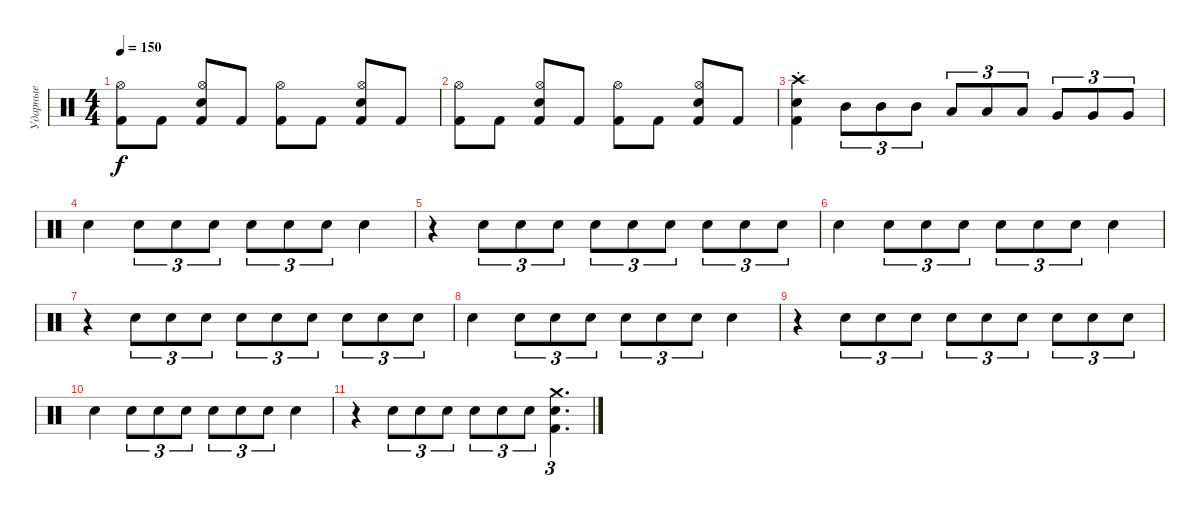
\track ("Ударные" "Ударные") {instrument percussion}
\staff {score}
\articulation defaults
\ts (4 4)
\tempo 150
\clef neutral
\ks c
("Kick (hit) 2" "Hi-Hat (open)").8{dy f} "Kick (hit) 2".8 ("Snare (hit) 2" "Kick (hit) 2" "Hi-Hat (open)").8 "Kick (hit) 2".8 ("Kick (hit) 2" "Hi-Hat (open)").8 "Kick (hit) 2".8 ("Snare (hit) 2" "Kick (hit) 2" "Hi-Hat (open)").8 "Kick (hit) 2".8 |
("Kick (hit) 2" "Hi-Hat (open)").8 "Kick (hit) 2".8 ("Snare (hit) 2" "Kick (hit) 2" "Hi-Hat (open)").8 "Kick (hit) 2".8 ("Kick (hit) 2" "Hi-Hat (open)").8 "Kick (hit) 2".8 ("Snare (hit) 2" "Kick (hit) 2" "Hi-Hat (open)").8 "Kick (hit) 2".8 |
("Kick (hit) 2"{st} "Snare (hit) 2"{st} "Crash high (hit)"{st}).4 "Mid Tom (hit)".8{tu (3 2)} "Mid Tom (hit)".8{tu (3 2)} "Mid Tom (hit)".8{tu (3 2)} "Low Tom (hit)".8{tu (3 2)} "Low Tom (hit)".8{tu (3 2)} "Low Tom (hit)".8{tu (3 2)} "Very Low Tom (hit)".8{tu (3 2)} "Very Low Tom (hit)".8{tu (3 2)} "Very Low Tom (hit)".8{tu (3 2) volume 5} |
"Snare (hit) 2".4{volume 13} "Snare (hit) 2".8{tu (3 2)} "Snare (hit) 2".8{tu (3 2)} "Snare (hit) 2".8{tu (3 2)} "Snare (hit) 2".8{tu (3 2)} "Snare (hit) 2".8{tu (3 2)} "Snare (hit) 2".8{tu (3 2)} "Snare (hit) 2".4 |
r.4 "Snare (hit) 2".8{tu (3 2)} "Snare (hit) 2".8{tu (3 2)} "Snare (hit) 2".8{tu (3 2)} "Snare (hit) 2".8{tu (3 2)} "Snare (hit) 2".8{tu (3 2)} "Snare (hit) 2".8{tu (3 2)} "Snare (hit) 2".8{tu (3 2)} "Snare (hit) 2".8{tu (3 2)} "Snare (hit) 2".8{tu (3 2)} |
"Snare (hit) 2".4 "Snare (hit) 2".8{tu (3 2)} "Snare (hit) 2".8{tu (3 2)} "Snare (hit) 2".8{tu (3 2)} "Snare (hit) 2".8{tu (3 2)} "Snare (hit) 2".8{tu (3 2)} "Snare (hit) 2".8{tu (3 2)} "Snare (hit) 2".4 |
r.4 "Snare (hit) 2".8{tu (3 2)} "Snare (hit) 2".8{tu (3 2)} "Snare (hit) 2".8{tu (3 2)} "Snare (hit) 2".8{tu (3 2)} "Snare (hit) 2".8{tu (3 2)} "Snare (hit) 2".8{tu (3 2)} "Snare (hit) 2".8{tu (3 2)} "Snare (hit) 2".8{tu (3 2)} "Snare (hit) 2".8{tu (3 2)} |
"Snare (hit) 2".4 "Snare (hit) 2".8{tu (3 2)} "Snare (hit) 2".8{tu (3 2)} "Snare (hit) 2".8{tu (3 2)} "Snare (hit) 2".8{tu (3 2)} "Snare (hit) 2".8{tu (3 2)} "Snare (hit) 2".8{tu (3 2)} "Snare (hit) 2".4 |
r.4 "Snare (hit) 2".8{tu (3 2)} "Snare (hit) 2".8{tu (3 2)} "Snare (hit) 2".8{tu (3 2)} "Snare (hit) 2".8{tu (3 2)} "Snare (hit) 2".8{tu (3 2)} "Snare (hit) 2".8{tu (3 2)} "Snare (hit) 2".8{tu (3 2)} "Snare (hit) 2".8{tu (3 2)} "Snare (hit) 2".8{tu (3 2)} |
"Snare (hit) 2".4 "Snare (hit) 2".8{tu (3 2)} "Snare (hit) 2".8{tu (3 2)} "Snare (hit) 2".8{tu (3 2)} "Snare (hit) 2".8{tu (3 2)} "Snare (hit) 2".8{tu (3 2)} "Snare (hit) 2".8{tu (3 2)} "Snare (hit) 2".4 |
r.4 "Snare (hit) 2".8{tu (3 2)} "Snare (hit) 2".8{tu (3 2)} "Snare (hit) 2".8{tu (3 2)} "Snare (hit) 2".8{tu (3 2)} "Snare (hit) 2".8{tu (3 2)} "Snare (hit) 2".8{tu (3 2)} ("Snare (hit) 2" "Crash medium (hit)" "Kick (hit) 2").4{d tu (3 2)}
